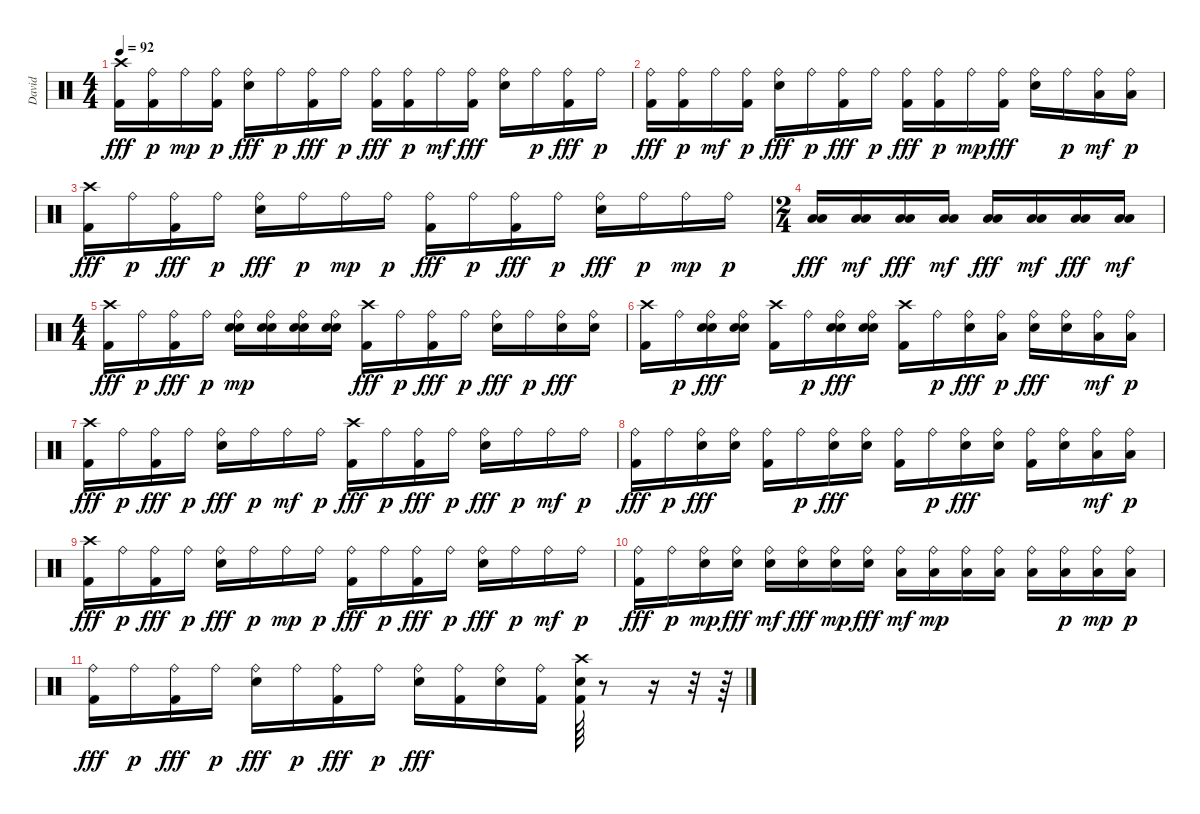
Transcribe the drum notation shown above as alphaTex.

\track ("David" "David") {instrument percussion}
\staff {score}
\articulation defaults
\ts (4 4)
\tempo 92
\clef neutral
\ks c
("Crash high (hit)" "Kick (hit) 2").16{dy fff} ("Ride (bell)" "Kick (hit) 2").16{dy p} "Ride (bell)".16{dy mp} ("Ride (bell)" "Kick (hit) 2").16{dy p} ("Ride (bell)" "Electric Snare (hit)").16{dy fff} "Ride (bell)".16{dy p} ("Ride (bell)" "Kick (hit) 2").16{dy fff} "Ride (bell)".16{dy p} ("Ride (bell)" "Kick (hit) 2").16{dy fff} ("Ride (bell)" "Kick (hit) 2").16{dy p} "Ride (bell)".16{dy mf} ("Ride (bell)" "Kick (hit) 2").16{dy fff} ("Ride (bell)" "Electric Snare (hit)").16 "Ride (bell)".16{dy p} ("Ride (bell)" "Kick (hit) 2").16{dy fff} "Ride (bell)".16{dy p} |
("Ride (bell)" "Kick (hit) 2").16{dy fff} ("Ride (bell)" "Kick (hit) 2").16{dy p} "Ride (bell)".16{dy mf} ("Ride (bell)" "Kick (hit) 2").16{dy p} ("Ride (bell)" "Electric Snare (hit)").16{dy fff} "Ride (bell)".16{dy p} ("Ride (bell)" "Kick (hit) 2").16{dy fff} "Ride (bell)".16{dy p} ("Ride (bell)" "Kick (hit) 2").16{dy fff} ("Ride (bell)" "Kick (hit) 2").16{dy p} "Ride (bell)".16{dy mp} ("Ride (bell)" "Kick (hit) 2").16{dy fff} ("Ride (bell)" "Electric Snare (hit)").16 "Ride (bell)".16{dy p} ("Ride (bell)" "Low Tom (hit)").16{dy mf} ("Ride (bell)" "Low Tom (hit)").16{dy p} |
("Crash high (hit)" "Kick (hit) 2").16{dy fff} "Ride (bell)".16{dy p} ("Ride (bell)" "Kick (hit) 2").16{dy fff} "Ride (bell)".16{dy p} ("Ride (bell)" "Electric Snare (hit)").16{dy fff} "Ride (bell)".16{dy p} "Ride (bell)".16{dy mp} "Ride (bell)".16{dy p} ("Ride (bell)" "Kick (hit) 2").16{dy fff} "Ride (bell)".16{dy p} ("Ride (bell)" "Kick (hit) 2").16{dy fff} "Ride (bell)".16{dy p} ("Ride (bell)" "Electric Snare (hit)").16{dy fff} "Ride (bell)".16{dy p} "Ride (bell)".16{dy mp} "Ride (bell)".16{dy p} |
\ts (2 4)
("Low Floor Tom (hit)" "Low Tom (hit)").16{dy fff} ("Low Floor Tom (hit)" "Low Tom (hit)").16{dy mf} ("Low Floor Tom (hit)" "Low Tom (hit)").16{dy fff} ("Low Floor Tom (hit)" "Low Tom (hit)").16{dy mf} ("Low Floor Tom (hit)" "Low Tom (hit)").16{dy fff} ("Low Floor Tom (hit)" "Low Tom (hit)").16{dy mf} ("Low Floor Tom (hit)" "Low Tom (hit)").16{dy fff} ("Low Floor Tom (hit)" "Low Tom (hit)").16{dy mf} |
\ts (4 4)
("Crash high (hit)" "Kick (hit) 2").16{dy fff} "Ride (bell)".16{dy p} ("Ride (bell)" "Kick (hit) 2").16{dy fff} "Ride (bell)".16{dy p} ("Ride (bell)" "Electric Snare (hit)" "Electric Snare (hit)").16{dy mp} ("Ride (bell)" "Electric Snare (hit)" "Electric Snare (hit)").16 ("Ride (bell)" "Electric Snare (hit)" "Electric Snare (hit)").16 ("Ride (bell)" "Electric Snare (hit)" "Electric Snare (hit)").16 ("Crash high (hit)" "Kick (hit) 2").16{dy fff} "Ride (bell)".16{dy p} ("Ride (bell)" "Kick (hit) 2").16{dy fff} "Ride (bell)".16{dy p} ("Ride (bell)" "Electric Snare (hit)").16{dy fff} "Ride (bell)".16{dy p} ("Ride (bell)" "Electric Snare (hit)").16{dy fff} ("Ride (bell)" "Electric Snare (hit)").16 |
("Crash high (hit)" "Kick (hit) 2").16 "Ride (bell)".16{dy p} ("Ride (bell)" "Electric Snare (hit)" "Electric Snare (hit)").16{dy fff} ("Ride (bell)" "Electric Snare (hit)" "Electric Snare (hit)").16 ("Crash high (hit)" "Kick (hit) 2").16 "Ride (bell)".16{dy p} ("Ride (bell)" "Electric Snare (hit)" "Electric Snare (hit)").16{dy fff} ("Ride (bell)" "Electric Snare (hit)" "Electric Snare (hit)").16 ("Crash high (hit)" "Kick (hit) 2").16 "Ride (bell)".16{dy p} ("Ride (bell)" "Electric Snare (hit)").16{dy fff} ("Ride (bell)" "Low Tom (hit)").16{dy p} ("Ride (bell)" "Electric Snare (hit)").16{dy fff} ("Ride (bell)" "Electric Snare (hit)").16 ("Ride (bell)" "Low Tom (hit)").16{dy mf} ("Ride (bell)" "Low Tom (hit)").16{dy p} |
("Crash high (hit)" "Kick (hit) 2").16{dy fff} "Ride (bell)".16{dy p} ("Ride (bell)" "Kick (hit) 2").16{dy fff} "Ride (bell)".16{dy p} ("Ride (bell)" "Electric Snare (hit)").16{dy fff} "Ride (bell)".16{dy p} "Ride (bell)".16{dy mf} "Ride (bell)".16{dy p} ("Crash high (hit)" "Kick (hit) 2").16{dy fff} "Ride (bell)".16{dy p} ("Ride (bell)" "Kick (hit) 2").16{dy fff} "Ride (bell)".16{dy p} ("Ride (bell)" "Electric Snare (hit)").16{dy fff} "Ride (bell)".16{dy p} "Ride (bell)".16{dy mf} "Ride (bell)".16{dy p} |
("Ride (bell)" "Kick (hit) 2").16{dy fff} "Ride (bell)".16{dy p} ("Ride (bell)" "Electric Snare (hit)").16{dy fff} ("Ride (bell)" "Electric Snare (hit)").16 ("Ride (bell)" "Kick (hit) 2").16 "Ride (bell)".16{dy p} ("Ride (bell)" "Electric Snare (hit)").16{dy fff} ("Ride (bell)" "Electric Snare (hit)").16 ("Ride (bell)" "Kick (hit) 2").16 "Ride (bell)".16{dy p} ("Ride (bell)" "Electric Snare (hit)").16{dy fff} ("Ride (bell)" "Electric Snare (hit)").16 ("Ride (bell)" "Kick (hit) 2").16 ("Ride (bell)" "Electric Snare (hit)").16 ("Ride (bell)" "Low Tom (hit)").16{dy mf} ("Ride (bell)" "Low Floor Tom (hit)").16{dy p} |
("Crash high (hit)" "Kick (hit) 2").16{dy fff} "Ride (bell)".16{dy p} ("Ride (bell)" "Kick (hit) 2").16{dy fff} "Ride (bell)".16{dy p} ("Ride (bell)" "Electric Snare (hit)").16{dy fff} "Ride (bell)".16{dy p} "Ride (bell)".16{dy mp} "Ride (bell)".16{dy p} ("Ride (bell)" "Kick (hit) 2").16{dy fff} "Ride (bell)".16{dy p} ("Ride (bell)" "Kick (hit) 2").16{dy fff} "Ride (bell)".16{dy p} ("Ride (bell)" "Electric Snare (hit)").16{dy fff} "Ride (bell)".16{dy p} "Ride (bell)".16{dy mf} "Ride (bell)".16{dy p} |
("Ride (bell)" "Kick (hit) 2").16{dy fff} "Ride (bell)".16{dy p} ("Ride (bell)" "Electric Snare (hit)").16{dy mp} ("Ride (bell)" "Electric Snare (hit)").16{dy fff} ("Ride (bell)" "Electric Snare (hit)").16{dy mf} ("Ride (bell)" "Electric Snare (hit)").16{dy fff} ("Ride (bell)" "Electric Snare (hit)").16{dy mp} ("Ride (bell)" "Electric Snare (hit)").16{dy fff} ("Ride (bell)" "Low Tom (hit)").16{dy mf} ("Ride (bell)" "Low Tom (hit)").16{dy mp} ("Ride (bell)" "Low Tom (hit)").16 ("Ride (bell)" "Low Tom (hit)").16 ("Ride (bell)" "Low Floor Tom (hit)").16 ("Ride (bell)" "Low Floor Tom (hit)").16{dy p} ("Ride (bell)" "Low Floor Tom (hit)").16{dy mp} ("Ride (bell)" "Low Floor Tom (hit)").16{dy p} |
("Ride (bell)" "Kick (hit) 2").16{dy fff} "Ride (bell)".16{dy p} ("Ride (bell)" "Kick (hit) 2").16{dy fff} "Ride (bell)".16{dy p} ("Ride (bell)" "Electric Snare (hit)").16{dy fff} "Ride (bell)".16{dy p} ("Ride (bell)" "Kick (hit) 2").16{dy fff} "Ride (bell)".16{dy p} ("Ride (bell)" "Electric Snare (hit)").16{dy fff} ("Ride (bell)" "Kick (hit) 2").16 ("Ride (bell)" "Electric Snare (hit)").16 ("Ride (bell)" "Kick (hit) 2").16 ("Electric Snare (hit)" "Crash high (hit)" "Kick (hit) 2").64 r.8 r.16 r.32 r.64
